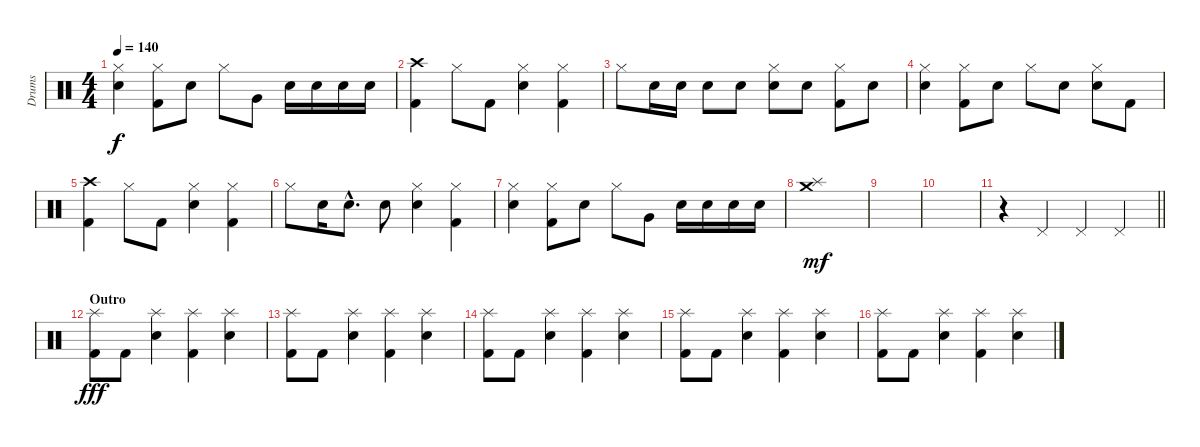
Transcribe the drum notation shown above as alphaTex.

\track ("Drums" "Drums") {instrument percussion}
\staff {score}
\articulation defaults
\ts (4 4)
\tempo 140
\clef neutral
\ks c
("Hi-Hat (closed)" "Snare (hit) 2").4{dy f} ("Hi-Hat (closed)" "Kick (hit) 2").8 "Snare (hit) 2".8 "Hi-Hat (closed)".8 "Very Low Tom (hit)".8 "Snare (hit) 2".16 "Electric Snare (hit)".16 "Snare (hit) 2".16 "Electric Snare (hit)".16 |
("Crash high (hit)" "Kick (hit) 2").4 "Hi-Hat (closed)".8 "Kick (hit) 2".8 ("Hi-Hat (closed)" "Snare (hit) 2").4 ("Hi-Hat (closed)" "Kick (hit) 2").4 |
"Hi-Hat (closed)".8 "Snare (hit) 2".16 "Electric Snare (hit)".16 "Snare (hit) 2".8 "Electric Snare (hit)".8 ("Hi-Hat (closed)" "Snare (hit) 2").8 "Electric Snare (hit)".8 ("Hi-Hat (closed)" "Kick (hit) 2").8 "Electric Snare (hit)".8 |
("Hi-Hat (closed)" "Snare (hit) 2").4 ("Hi-Hat (closed)" "Kick (hit) 2").8 "Snare (hit) 2".8 "Hi-Hat (closed)".8 "Electric Snare (hit)".8 ("Hi-Hat (closed)" "Snare (hit) 2").8 "Kick (hit) 2".8 |
("Crash high (hit)" "Kick (hit) 2").4 "Hi-Hat (closed)".8 "Kick (hit) 2".8 ("Hi-Hat (closed)" "Snare (hit) 2").4 ("Hi-Hat (closed)" "Kick (hit) 2").4 |
"Hi-Hat (closed)".8 "Snare (hit) 2".16 "Snare (hit) 2"{hac}.8{d} "Snare (hit) 2".8 ("Hi-Hat (closed)" "Snare (hit) 2").4 ("Hi-Hat (closed)" "Kick (hit) 2").4 |
("Hi-Hat (closed)" "Snare (hit) 2").4 ("Hi-Hat (closed)" "Kick (hit) 2").8 "Snare (hit) 2".8 "Hi-Hat (closed)".8 "Very Low Tom (hit)".8 "Snare (hit) 2".16 "Electric Snare (hit)".16 "Snare (hit) 2".16 "Electric Snare (hit)".16 |
("Crash medium (hit)" "Splash (hit)").1{dy mf} |
|
|
\barLineRight lightlight
r.4 "Pedal Hi-Hat (hit)".4 "Pedal Hi-Hat (hit)".4 "Pedal Hi-Hat (hit)".4 |
\section ("" "Outro")
("Splash (hit)" "Kick (hit) 2").8{dy fff} "Kick (hit) 2".8 ("Splash (hit)" "Snare (hit) 2").4 ("Splash (hit)" "Kick (hit) 2").4 ("Splash (hit)" "Snare (hit) 2").4 |
("Splash (hit)" "Kick (hit) 2").8 "Kick (hit) 2".8 ("Splash (hit)" "Snare (hit) 2").4 ("Splash (hit)" "Kick (hit) 2").4 ("Splash (hit)" "Snare (hit) 2").4 |
("Splash (hit)" "Kick (hit) 2").8 "Kick (hit) 2".8 ("Splash (hit)" "Snare (hit) 2").4 ("Splash (hit)" "Kick (hit) 2").4 ("Splash (hit)" "Snare (hit) 2").4 |
("Splash (hit)" "Kick (hit) 2").8 "Kick (hit) 2".8 ("Splash (hit)" "Snare (hit) 2").4 ("Splash (hit)" "Kick (hit) 2").4 ("Splash (hit)" "Snare (hit) 2").4 |
("Splash (hit)" "Kick (hit) 2").8 "Kick (hit) 2".8 ("Splash (hit)" "Snare (hit) 2").4 ("Splash (hit)" "Kick (hit) 2").4 ("Splash (hit)" "Snare (hit) 2").4
